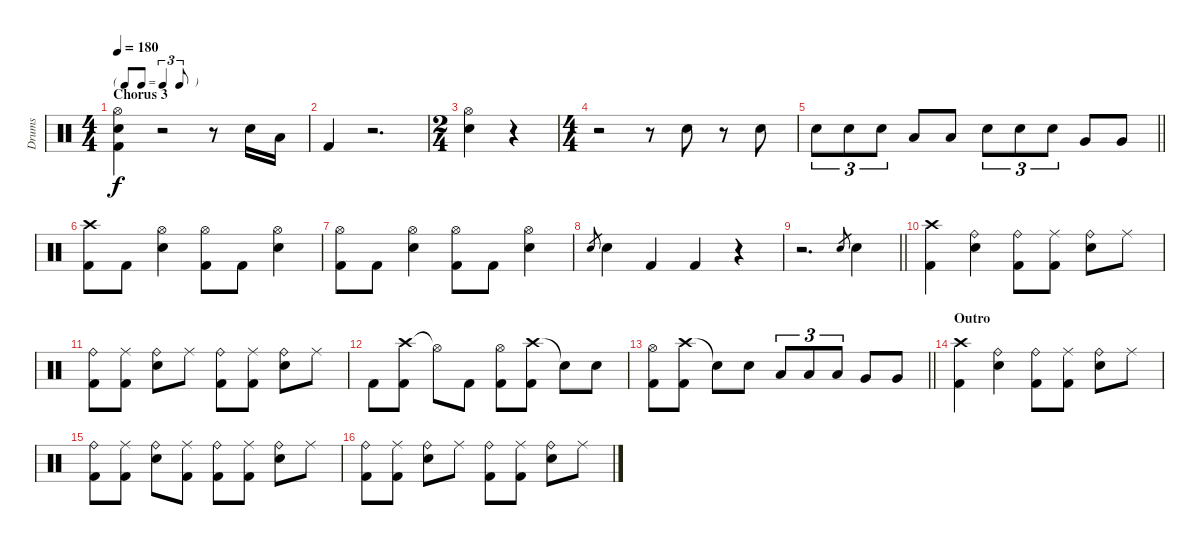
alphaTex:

\track ("Drums" "Drums") {instrument percussion}
\staff {score}
\articulation defaults
\ts (4 4)
\tf triplet8th
\section ("" "Chorus 3")
\tempo 180
\clef neutral
\ks c
("Hi-Hat (open)" "Snare (hit) 2" "Kick (hit) 2").4{dy f} r.2 r.8 "Snare (hit) 2".16 "Low Tom (hit)".16 |
"Kick (hit) 2".4 r.2{d} |
\ts (2 4)
("Hi-Hat (open)" "Snare (hit) 2").4 r.4 |
\ts (4 4)
r.2 r.8 "Snare (hit) 2".8 r.8 "Snare (hit) 2".8 |
\barLineRight lightlight "Snare (hit) 2".8{tu (3 2)} "Snare (hit) 2".8{tu (3 2)} "Snare (hit) 2".8{tu (3 2)} "Low Tom (hit)".8 "Low Tom (hit)".8 "Snare (hit) 2".8{tu (3 2)} "Snare (hit) 2".8{tu (3 2)} "Snare (hit) 2".8{tu (3 2)} "Very Low Tom (hit)".8 "Very Low Tom (hit)".8
|
("Crash high (hit)" "Kick (hit) 2").8 "Kick (hit) 2".8 ("Hi-Hat (open)" "Snare (hit) 2").4 ("Hi-Hat (open)" "Kick (hit) 2").8 "Kick (hit) 2".8 ("Hi-Hat (open)" "Snare (hit) 2").4 |
("Hi-Hat (open)" "Kick (hit) 2").8 "Kick (hit) 2".8 ("Hi-Hat (open)" "Snare (hit) 2").4 ("Hi-Hat (open)" "Kick (hit) 2").8 "Kick (hit) 2".8 ("Hi-Hat (open)" "Snare (hit) 2").4 |
"Snare (hit) 2".8{gr} "Snare (hit) 2".4 "Kick (hit) 2".4 "Kick (hit) 2".4 r.4 |
\barLineRight lightlight
r.2{d} "Snare (hit) 2".8{gr} "Snare (hit) 2".4 |
("Crash high (hit)" "Kick (hit) 2").4 ("Ride (bell)" "Snare (hit) 2").4 ("Ride (bell)" "Kick (hit) 2").8 ("Ride (middle)" "Kick (hit) 2").8 ("Ride (bell)" "Snare (hit) 2").8 "Ride (middle)".8 |
("Ride (bell)" "Kick (hit) 2").8 ("Ride (middle)" "Kick (hit) 2").8 ("Ride (bell)" "Snare (hit) 2").8 "Ride (middle)".8 ("Ride (bell)" "Kick (hit) 2").8 ("Ride (middle)" "Kick (hit) 2").8 ("Ride (bell)" "Snare (hit) 2").8 "Ride (middle)".8 |
"Kick (hit) 2".8 ("Crash high (hit)" "Kick (hit) 2").8 "Hi-Hat (open)"{t}.8 "Kick (hit) 2".8 ("Hi-Hat (open)" "Kick (hit) 2").8 ("Crash high (hit)" "Kick (hit) 2").8 "Snare (hit)"{t}.8 "Snare (hit) 2".8 |
\barLineRight lightlight
("Hi-Hat (open)" "Kick (hit) 2").8 ("Crash high (hit)" "Kick (hit) 2").8 "Snare (hit)"{t}.8 "Snare (hit) 2".8 "Low Tom (hit)".8{tu (3 2)} "Low Tom (hit)".8{tu (3 2)} "Low Tom (hit)".8{tu (3 2)} "Very Low Tom (hit)".8 "Very Low Tom (hit)".8 |
\section ("" "Outro")
("Crash high (hit)" "Kick (hit) 2").4 ("Ride (bell)" "Snare (hit) 2").4 ("Ride (bell)" "Kick (hit) 2").8 ("Ride (middle)" "Kick (hit) 2").8 ("Ride (bell)" "Snare (hit) 2").8 "Ride (middle)".8 |
("Ride (bell)" "Kick (hit) 2").8 ("Ride (middle)" "Kick (hit) 2").8 ("Ride (bell)" "Snare (hit) 2").8 ("Ride (middle)" "Kick (hit) 2").8 ("Ride (bell)" "Kick (hit) 2").8 ("Ride (middle)" "Kick (hit) 2").8 ("Ride (bell)" "Snare (hit) 2").8 "Ride (middle)".8 |
("Ride (bell)" "Kick (hit) 2").8 ("Ride (middle)" "Kick (hit) 2").8 ("Ride (bell)" "Snare (hit) 2").8 "Ride (middle)".8 ("Ride (bell)" "Kick (hit) 2").8 ("Ride (middle)" "Kick (hit) 2").8 ("Ride (bell)" "Snare (hit) 2").8 "Ride (middle)".8
